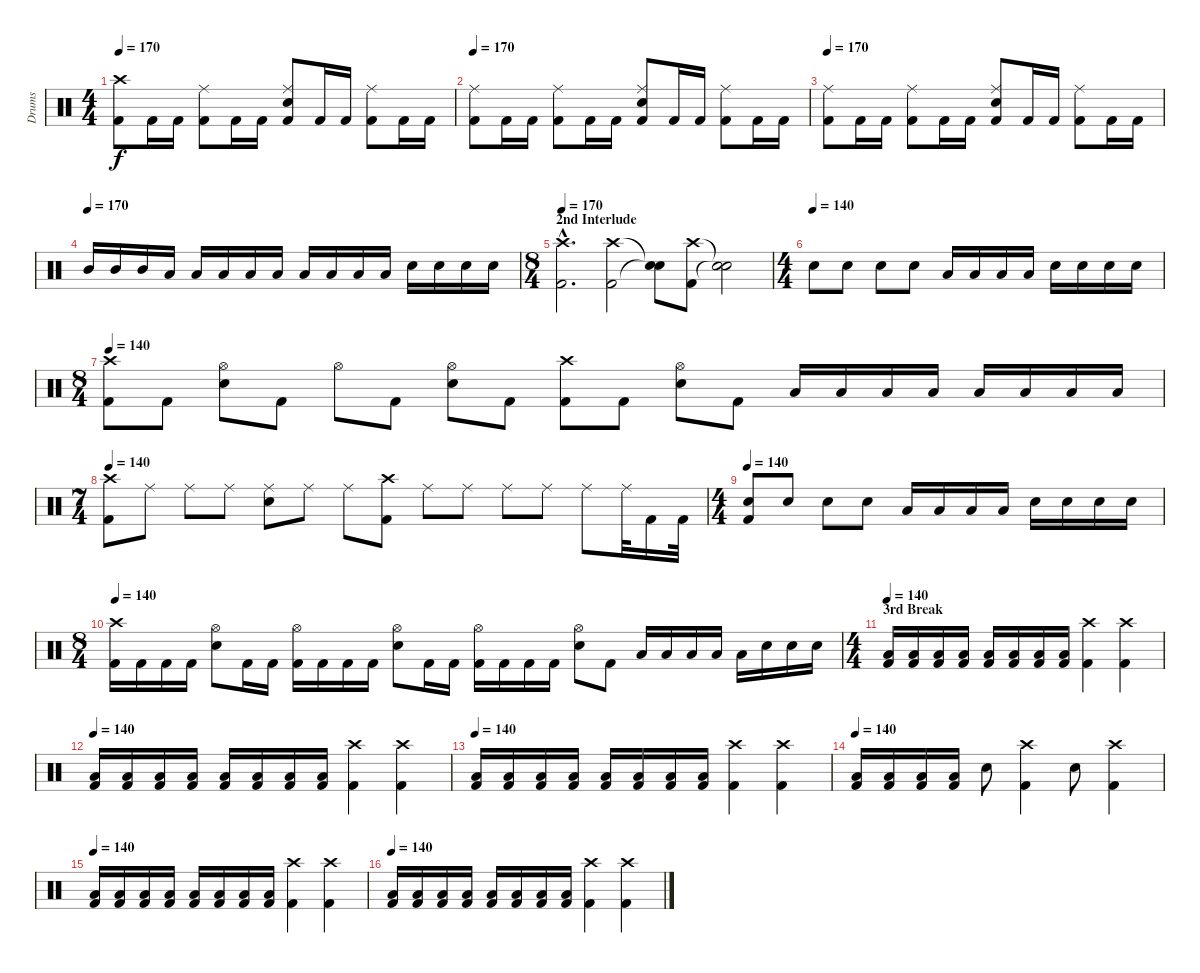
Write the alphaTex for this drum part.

\track ("Drums" "Drums") {instrument percussion}
\staff {score}
\articulation defaults
\ts (4 4)
\tempo 170
\clef neutral
\ks c
("Crash high (hit)" "Kick (hit) 2").8{dy f} "Kick (hit) 2".16 "Kick (hit) 2".16 ("Ride (middle)" "Kick (hit) 2").8 "Kick (hit) 2".16 "Kick (hit) 2".16 ("Ride (middle)" "Snare (hit) 2" "Kick (hit) 2").8 "Kick (hit) 2".16 "Kick (hit) 2".16 ("Ride (middle)" "Kick (hit) 2").8 "Kick (hit) 2".16 "Kick (hit) 2".16 |
\tempo 170
("Ride (middle)" "Kick (hit) 2").8 "Kick (hit) 2".16 "Kick (hit) 2".16 ("Ride (middle)" "Kick (hit) 2").8 "Kick (hit) 2".16 "Kick (hit) 2".16 ("Ride (middle)" "Snare (hit) 2" "Kick (hit) 2").8 "Kick (hit) 2".16 "Kick (hit) 2".16 ("Ride (middle)" "Kick (hit) 2").8 "Kick (hit) 2".16 "Kick (hit) 2".16 |
\tempo 170
("Ride (middle)" "Kick (hit) 2").8 "Kick (hit) 2".16 "Kick (hit) 2".16 ("Ride (middle)" "Kick (hit) 2").8 "Kick (hit) 2".16 "Kick (hit) 2".16 ("Ride (middle)" "Snare (hit) 2" "Kick (hit) 2").8 "Kick (hit) 2".16 "Kick (hit) 2".16 ("Ride (middle)" "Kick (hit) 2").8 "Kick (hit) 2".16 "Kick (hit) 2".16 |
\tempo (170)
"Mid Tom (hit)".16 "Mid Tom (hit)".16 "Mid Tom (hit)".16 "Low Tom (hit)".16 "Low Tom (hit)".16 "Low Tom (hit)".16 "Low Floor Tom (hit)".16 "Low Floor Tom (hit)".16 "Low Tom (hit)".16 "Low Tom (hit)".16 "Low Tom (hit)".16 "Low Tom (hit)".16 "Snare (hit) 2".16 "Snare (hit) 2".16 "Snare (hit) 2".16 "Snare (hit) 2".16 |
\ts (8 4)
\section ("" "2nd Interlude")
\tempo 170
("Crash high (hit)"{hac} "Kick (hit) 2"{hac}).2{d} ("Crash high (hit)" "Kick (hit) 2").2 ("Snare (hit)"{t} "Snare (hit)"{t}).8 ("Crash high (hit)" "Kick (hit) 2").8 ("Snare (hit)"{t} "Snare (hit)"{t}).2 |
\ts (4 4)
\tempo (140)
"Snare (hit) 2".8 "Snare (hit) 2".8 "Snare (hit) 2".8 "Snare (hit) 2".8 "Low Tom (hit)".16 "Low Tom (hit)".16 "Low Tom (hit)".16 "Low Tom (hit)".16 "Snare (hit) 2".16 "Snare (hit) 2".16 "Snare (hit) 2".16 "Snare (hit) 2".16 |
\ts (8 4)
\tempo 140
("Crash high (hit)" "Kick (hit) 2").8 "Kick (hit) 2".8 ("Hi-Hat (open)" "Snare (hit) 2").8 "Kick (hit) 2".8 "Hi-Hat (open)".8 "Kick (hit) 2".8 ("Hi-Hat (open)" "Snare (hit) 2").8 "Kick (hit) 2".8 ("Crash high (hit)" "Kick (hit) 2").8 "Kick (hit) 2".8 ("Hi-Hat (open)" "Snare (hit) 2").8 "Kick (hit) 2".8 "Low Tom (hit)".16 "Low Tom (hit)".16 "Low Tom (hit)".16 "Low Tom (hit)".16 "Low Tom (hit)".16 "Low Floor Tom (hit)".16 "Low Floor Tom (hit)".16 "Low Floor Tom (hit)".16 |
\ts (7 4)
\tempo 140
("Crash high (hit)" "Kick (hit) 2").8 "Ride (middle)".8 "Ride (middle)".8 "Ride (middle)".8 ("Ride (middle)" "Snare (hit) 2").8 "Ride (middle)".8 "Ride (middle)".8 ("Crash high (hit)" "Kick (hit) 2").8 "Ride (middle)".8 "Ride (middle)".8 "Ride (middle)".8 "Ride (middle)".8 "Ride (middle)".8 "Ride (middle)".32 "Kick (hit) 2".16 "Kick (hit) 2".32 |
\ts (4 4)
\tempo 140
("Snare (hit) 2" "Kick (hit) 2").8 "Snare (hit) 2".8 "Snare (hit) 2".8 "Snare (hit) 2".8 "Low Tom (hit)".16 "Low Tom (hit)".16 "Low Tom (hit)".16 "Low Tom (hit)".16 "Snare (hit) 2".16 "Snare (hit) 2".16 "Snare (hit) 2".16 "Snare (hit) 2".16 |
\ts (8 4)
\tempo 140
("Crash high (hit)" "Kick (hit) 2").16 "Kick (hit) 2".16 "Kick (hit) 2".16 "Kick (hit) 2".16 ("Hi-Hat (open)" "Snare (hit) 2").8 "Kick (hit) 2".16 "Kick (hit) 2".16 ("Hi-Hat (open)" "Kick (hit) 2").16 "Kick (hit) 2".16 "Kick (hit) 2".16 "Kick (hit) 2".16 ("Hi-Hat (open)" "Snare (hit) 2").8 "Kick (hit) 2".16 "Kick (hit) 2".16 ("Hi-Hat (open)" "Kick (hit) 2").16 "Kick (hit) 2".16 "Kick (hit) 2".16 "Kick (hit) 2".16 ("Hi-Hat (open)" "Snare (hit) 2").8 "Kick (hit) 2".8 "Low Tom (hit)".16 "Low Tom (hit)".16 "Low Tom (hit)".16 "Low Tom (hit)".16 "Low Tom (hit)".16 "Snare (hit) 2".16 "Snare (hit) 2".16 "Snare (hit) 2".16 |
\ts (4 4)
\section ("" "3rd Break")
\tempo 140
("Low Tom (hit)" "Kick (hit) 2").16 ("Low Tom (hit)" "Kick (hit) 2").16 ("Low Tom (hit)" "Kick (hit) 2").16 ("Low Tom (hit)" "Kick (hit) 2").16 ("Low Tom (hit)" "Kick (hit) 2").16 ("Low Tom (hit)" "Kick (hit) 2").16 ("Low Tom (hit)" "Kick (hit) 2").16 ("Low Tom (hit)" "Kick (hit) 2").16 ("Crash high (hit)" "Kick (hit) 2").4 ("Crash high (hit)" "Kick (hit) 2").4 |
\tempo 140
("Low Tom (hit)" "Kick (hit) 2").16 ("Low Tom (hit)" "Kick (hit) 2").16 ("Low Tom (hit)" "Kick (hit) 2").16 ("Low Tom (hit)" "Kick (hit) 2").16 ("Low Tom (hit)" "Kick (hit) 2").16 ("Low Tom (hit)" "Kick (hit) 2").16 ("Low Tom (hit)" "Kick (hit) 2").16 ("Low Tom (hit)" "Kick (hit) 2").16 ("Crash high (hit)" "Kick (hit) 2").4 ("Crash high (hit)" "Kick (hit) 2").4 |
\tempo 140
("Low Tom (hit)" "Kick (hit) 2").16 ("Low Tom (hit)" "Kick (hit) 2").16 ("Low Tom (hit)" "Kick (hit) 2").16 ("Low Tom (hit)" "Kick (hit) 2").16 ("Low Tom (hit)" "Kick (hit) 2").16 ("Low Tom (hit)" "Kick (hit) 2").16 ("Low Tom (hit)" "Kick (hit) 2").16 ("Low Tom (hit)" "Kick (hit) 2").16 ("Crash high (hit)" "Kick (hit) 2").4 ("Crash high (hit)" "Kick (hit) 2").4 |
\tempo 140
("Low Tom (hit)" "Kick (hit) 2").16 ("Low Tom (hit)" "Kick (hit) 2").16 ("Low Tom (hit)" "Kick (hit) 2").16 ("Low Tom (hit)" "Kick (hit) 2").16 "Snare (hit) 2".8 ("Crash high (hit)" "Kick (hit) 2").4 "Snare (hit) 2".8 ("Crash high (hit)" "Kick (hit) 2").4 |
\tempo 140
("Low Tom (hit)" "Kick (hit) 2").16 ("Low Tom (hit)" "Kick (hit) 2").16 ("Low Tom (hit)" "Kick (hit) 2").16 ("Low Tom (hit)" "Kick (hit) 2").16 ("Low Tom (hit)" "Kick (hit) 2").16 ("Low Tom (hit)" "Kick (hit) 2").16 ("Low Tom (hit)" "Kick (hit) 2").16 ("Low Tom (hit)" "Kick (hit) 2").16 ("Crash high (hit)" "Kick (hit) 2").4 ("Crash high (hit)" "Kick (hit) 2").4 |
\tempo 140
("Low Tom (hit)" "Kick (hit) 2").16 ("Low Tom (hit)" "Kick (hit) 2").16 ("Low Tom (hit)" "Kick (hit) 2").16 ("Low Tom (hit)" "Kick (hit) 2").16 ("Low Tom (hit)" "Kick (hit) 2").16 ("Low Tom (hit)" "Kick (hit) 2").16 ("Low Tom (hit)" "Kick (hit) 2").16 ("Low Tom (hit)" "Kick (hit) 2").16 ("Crash high (hit)" "Kick (hit) 2").4 ("Crash high (hit)" "Kick (hit) 2").4
